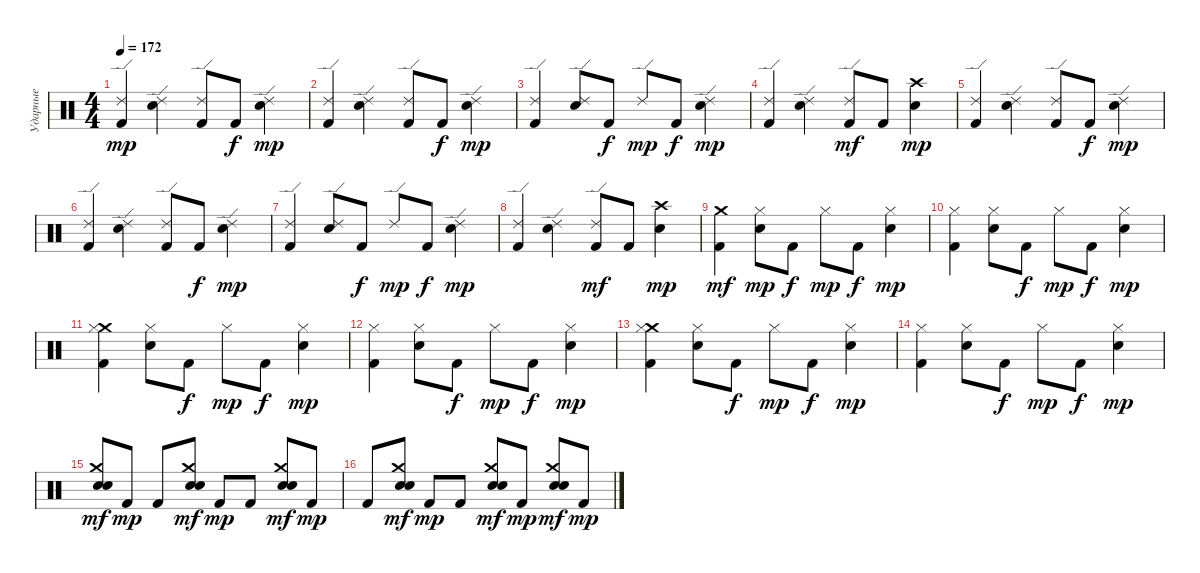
\track ("Ударные" "Ударные") {instrument percussion}
\staff {score}
\articulation defaults
\ts (4 4)
\tempo 172
\clef neutral
\ks c
("Ride (edge) 2" "Kick (hit) 2").4{dy mp} ("Ride (edge) 2" "Electric Snare (hit)").4 ("Ride (edge) 2" "Kick (hit) 2").8 "Kick (hit) 2".8{dy f} ("Ride (edge) 2" "Electric Snare (hit)").4{dy mp} |
("Ride (edge) 2" "Kick (hit) 2").4 ("Ride (edge) 2" "Electric Snare (hit)").4 ("Ride (edge) 2" "Kick (hit) 2").8 "Kick (hit) 2".8{dy f} ("Ride (edge) 2" "Electric Snare (hit)").4{dy mp} |
("Ride (edge) 2" "Kick (hit) 2").4 ("Ride (edge) 2" "Electric Snare (hit)").8 "Kick (hit) 2".8{dy f} "Ride (edge) 2".8{dy mp} "Kick (hit) 2".8{dy f} ("Ride (edge) 2" "Electric Snare (hit)").4{dy mp} |
("Ride (edge) 2" "Kick (hit) 2").4 ("Ride (edge) 2" "Electric Snare (hit)").4 ("Ride (edge) 2" "Kick (hit) 2").8{dy mf} "Kick (hit) 2".8 ("Crash high (hit)" "Electric Snare (hit)").4{dy mp} |
("Ride (edge) 2" "Kick (hit) 2").4 ("Ride (edge) 2" "Electric Snare (hit)").4 ("Ride (edge) 2" "Kick (hit) 2").8 "Kick (hit) 2".8{dy f} ("Ride (edge) 2" "Electric Snare (hit)").4{dy mp} |
("Ride (edge) 2" "Kick (hit) 2").4 ("Ride (edge) 2" "Electric Snare (hit)").4 ("Ride (edge) 2" "Kick (hit) 2").8 "Kick (hit) 2".8{dy f} ("Ride (edge) 2" "Electric Snare (hit)").4{dy mp} |
("Ride (edge) 2" "Kick (hit) 2").4 ("Ride (edge) 2" "Electric Snare (hit)").8 "Kick (hit) 2".8{dy f} "Ride (edge) 2".8{dy mp} "Kick (hit) 2".8{dy f} ("Ride (edge) 2" "Electric Snare (hit)").4{dy mp} |
("Ride (edge) 2" "Kick (hit) 2").4 ("Ride (edge) 2" "Electric Snare (hit)").4 ("Ride (edge) 2" "Kick (hit) 2").8{dy mf} "Kick (hit) 2".8 ("Crash high (hit)" "Electric Snare (hit)").4{dy mp} |
\section ("" "")
("Crash medium (hit)" "Kick (hit) 2").4{dy mf} ("Hi-Hat (closed)" "Electric Snare (hit)").8{dy mp} "Kick (hit) 2".8{dy f} "Hi-Hat (closed)".8{dy mp} "Kick (hit) 2".8{dy f} ("Hi-Hat (closed)" "Electric Snare (hit)").4{dy mp} |
("Hi-Hat (closed)" "Kick (hit) 2").4 ("Hi-Hat (closed)" "Electric Snare (hit)").8 "Kick (hit) 2".8{dy f} "Hi-Hat (closed)".8{dy mp} "Kick (hit) 2".8{dy f} ("Hi-Hat (closed)" "Electric Snare (hit)").4{dy mp} |
("Crash medium (hit)" "Hi-Hat (closed)" "Kick (hit) 2").4 ("Hi-Hat (closed)" "Electric Snare (hit)").8 "Kick (hit) 2".8{dy f} "Hi-Hat (closed)".8{dy mp} "Kick (hit) 2".8{dy f} ("Hi-Hat (closed)" "Electric Snare (hit)").4{dy mp} |
("Hi-Hat (closed)" "Kick (hit) 2").4 ("Hi-Hat (closed)" "Electric Snare (hit)").8 "Kick (hit) 2".8{dy f} "Hi-Hat (closed)".8{dy mp} "Kick (hit) 2".8{dy f} ("Hi-Hat (closed)" "Electric Snare (hit)").4{dy mp} |
("Crash medium (hit)" "Hi-Hat (closed)" "Kick (hit) 2").4 ("Hi-Hat (closed)" "Electric Snare (hit)").8 "Kick (hit) 2".8{dy f} "Hi-Hat (closed)".8{dy mp} "Kick (hit) 2".8{dy f} ("Hi-Hat (closed)" "Electric Snare (hit)").4{dy mp} |
("Hi-Hat (closed)" "Kick (hit) 2").4 ("Hi-Hat (closed)" "Electric Snare (hit)").8 "Kick (hit) 2".8{dy f} "Hi-Hat (closed)".8{dy mp} "Kick (hit) 2".8{dy f} ("Hi-Hat (closed)" "Electric Snare (hit)").4{dy mp} |
("Crash medium (hit)" "Electric Snare (hit)" "Snare (hit) 2").8{dy mf} "Kick (hit) 2".8{dy mp} "Kick (hit) 2".8 ("Crash medium (hit)" "Electric Snare (hit)" "Snare (hit) 2").8{dy mf} "Kick (hit) 2".8{dy mp} "Kick (hit) 2".8 ("Crash medium (hit)" "Electric Snare (hit)" "Snare (hit) 2").8{dy mf} "Kick (hit) 2".8{dy mp} |
"Kick (hit) 2".8 ("Crash medium (hit)" "Electric Snare (hit)" "Snare (hit) 2").8{dy mf} "Kick (hit) 2".8{dy mp} "Kick (hit) 2".8 ("Crash medium (hit)" "Electric Snare (hit)" "Snare (hit) 2").8{dy mf} "Kick (hit) 2".8{dy mp} ("Crash medium (hit)" "Electric Snare (hit)" "Snare (hit) 2").8{dy mf} "Kick (hit) 2".8{dy mp}
